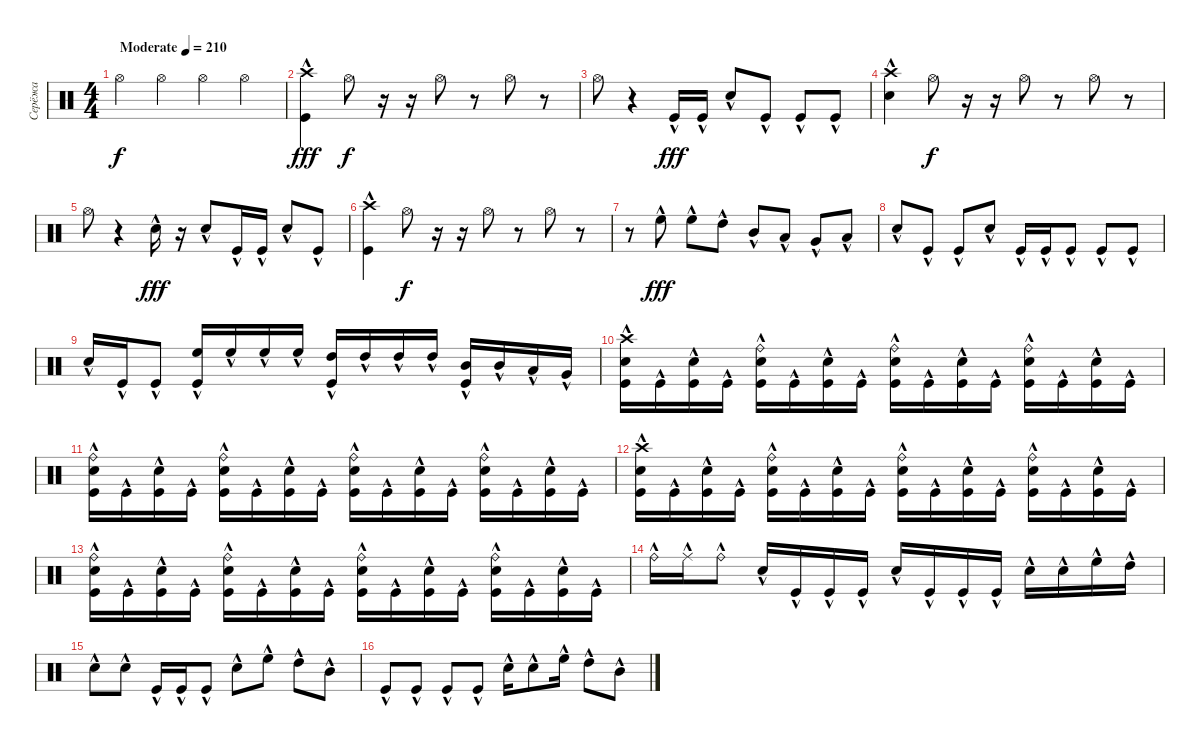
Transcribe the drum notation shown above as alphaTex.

\track ("Серёжа" "Серёжа") {instrument percussion}
\staff {score}
\articulation defaults
\ts (4 4)
\tempo (210 "Moderate")
\clef neutral
\ks c "Hi-Hat (open)".4{dy f} "Hi-Hat (open)".4 "Hi-Hat (open)".4 "Hi-Hat (open)".4
|
("Crash high (hit)"{hac} "Kick (hit)"{hac}).4{dy fff} "Hi-Hat (open)".8{dy f} r.16 r.16 "Hi-Hat (open)".8 r.8 "Hi-Hat (open)".8 r.8 |
"Hi-Hat (open)".8 r.4 "Kick (hit)"{hac}.16{dy fff} "Kick (hit)"{hac}.16 "Snare (hit) 2"{hac}.8 "Kick (hit)"{hac}.8 "Kick (hit)"{hac}.8 "Kick (hit)"{hac}.8 |
("Crash high (hit)"{hac} "Snare (hit) 2"{hac}).4 "Hi-Hat (open)".8{dy f} r.16 r.16 "Hi-Hat (open)".8 r.8 "Hi-Hat (open)".8 r.8 |
"Hi-Hat (open)".8 r.4 "Snare (hit) 2"{hac}.16{dy fff} r.16 "Snare (hit) 2"{hac}.8 "Kick (hit)"{hac}.16 "Kick (hit)"{hac}.16 "Snare (hit) 2"{hac}.8 "Kick (hit)"{hac}.8 |
("Crash high (hit)"{hac} "Kick (hit)"{hac}).4 "Hi-Hat (open)".8{dy f} r.16 r.16 "Hi-Hat (open)".8 r.8 "Hi-Hat (open)".8 r.8 |
r.8 "High Floor Tom (hit)"{hac}.8{dy fff} "High Floor Tom (hit)"{hac}.8 "High Tom (hit)"{hac}.8 "Mid Tom (hit)"{hac}.8 "Low Tom (hit)"{hac}.8 "Very Low Tom (hit)"{hac}.8 "Low Floor Tom (hit)"{hac}.8 |
"Snare (hit) 2"{hac}.8 "Kick (hit)"{hac}.8 "Kick (hit)"{hac}.8 "Snare (hit) 2"{hac}.8 "Kick (hit)"{hac}.16 "Kick (hit)"{hac}.16 "Kick (hit)"{hac}.8 "Kick (hit)"{hac}.8 "Kick (hit)"{hac}.8 |
"Snare (hit) 2"{hac}.16 "Kick (hit)"{hac}.16 "Kick (hit)"{hac}.8 ("High Floor Tom (hit)"{hac} "Kick (hit)"{hac}).16 "High Floor Tom (hit)"{hac}.16 "High Floor Tom (hit)"{hac}.16 "High Floor Tom (hit)"{hac}.16 ("High Tom (hit)"{hac} "Kick (hit)"{hac}).16 "High Tom (hit)"{hac}.16 "High Tom (hit)"{hac}.16 "High Tom (hit)"{hac}.16 ("Mid Tom (hit)"{hac} "Kick (hit)"{hac}).16 "Mid Tom (hit)"{hac}.16 "Low Tom (hit)"{hac}.16 "Very Low Tom (hit)"{hac}.16 |
("Crash high (hit)"{hac} "Snare (hit) 2"{hac} "Kick (hit)"{hac}).16 "Kick (hit)"{hac}.16 ("Snare (hit) 2"{hac} "Kick (hit)"{hac}).16 "Kick (hit)"{hac}.16 ("Ride (bell)" "Snare (hit) 2"{hac} "Kick (hit)"{hac}).16 "Kick (hit)"{hac}.16 ("Snare (hit) 2"{hac} "Kick (hit)"{hac}).16 "Kick (hit)"{hac}.16 ("Ride (bell)" "Snare (hit) 2"{hac} "Kick (hit)"{hac}).16 "Kick (hit)"{hac}.16 ("Snare (hit) 2"{hac} "Kick (hit)"{hac}).16 "Kick (hit)"{hac}.16 ("Ride (bell)" "Snare (hit) 2"{hac} "Kick (hit)"{hac}).16 "Kick (hit)"{hac}.16 ("Snare (hit) 2"{hac} "Kick (hit)"{hac}).16 "Kick (hit)"{hac}.16 |
("Ride (bell)" "Snare (hit) 2"{hac} "Kick (hit)"{hac}).16 "Kick (hit)"{hac}.16 ("Snare (hit) 2"{hac} "Kick (hit)"{hac}).16 "Kick (hit)"{hac}.16 ("Ride (bell)" "Snare (hit) 2"{hac} "Kick (hit)"{hac}).16 "Kick (hit)"{hac}.16 ("Snare (hit) 2"{hac} "Kick (hit)"{hac}).16 "Kick (hit)"{hac}.16 ("Ride (bell)" "Snare (hit) 2"{hac} "Kick (hit)"{hac}).16 "Kick (hit)"{hac}.16 ("Snare (hit) 2"{hac} "Kick (hit)"{hac}).16 "Kick (hit)"{hac}.16 ("Ride (bell)" "Snare (hit) 2"{hac} "Kick (hit)"{hac}).16 "Kick (hit)"{hac}.16 ("Snare (hit) 2"{hac} "Kick (hit)"{hac}).16 "Kick (hit)"{hac}.16 |
("Crash high (hit)"{hac} "Snare (hit) 2"{hac} "Kick (hit)"{hac}).16 "Kick (hit)"{hac}.16 ("Snare (hit) 2"{hac} "Kick (hit)"{hac}).16 "Kick (hit)"{hac}.16 ("Ride (bell)" "Snare (hit) 2"{hac} "Kick (hit)"{hac}).16 "Kick (hit)"{hac}.16 ("Snare (hit) 2"{hac} "Kick (hit)"{hac}).16 "Kick (hit)"{hac}.16 ("Ride (bell)" "Snare (hit) 2"{hac} "Kick (hit)"{hac}).16 "Kick (hit)"{hac}.16 ("Snare (hit) 2"{hac} "Kick (hit)"{hac}).16 "Kick (hit)"{hac}.16 ("Ride (bell)" "Snare (hit) 2"{hac} "Kick (hit)"{hac}).16 "Kick (hit)"{hac}.16 ("Snare (hit) 2"{hac} "Kick (hit)"{hac}).16 "Kick (hit)"{hac}.16 |
("Ride (bell)" "Snare (hit) 2"{hac} "Kick (hit)"{hac}).16 "Kick (hit)"{hac}.16 ("Snare (hit) 2"{hac} "Kick (hit)"{hac}).16 "Kick (hit)"{hac}.16 ("Ride (bell)" "Snare (hit) 2"{hac} "Kick (hit)"{hac}).16 "Kick (hit)"{hac}.16 ("Snare (hit) 2"{hac} "Kick (hit)"{hac}).16 "Kick (hit)"{hac}.16 ("Ride (bell)" "Snare (hit) 2"{hac} "Kick (hit)"{hac}).16 "Kick (hit)"{hac}.16 ("Snare (hit) 2"{hac} "Kick (hit)"{hac}).16 "Kick (hit)"{hac}.16 ("Ride (bell)" "Snare (hit) 2"{hac} "Kick (hit)"{hac}).16 "Kick (hit)"{hac}.16 ("Snare (hit) 2"{hac} "Kick (hit)"{hac}).16 "Kick (hit)"{hac}.16 |
"Ride (bell)"{hac}.16 "Ride (middle)"{hac}.16 "Ride (bell)"{hac}.8 "Snare (hit) 2"{hac}.16 "Kick (hit)"{hac}.16 "Kick (hit)"{hac}.16 "Kick (hit)"{hac}.16 "Snare (hit) 2"{hac}.16 "Kick (hit)"{hac}.16 "Kick (hit)"{hac}.16 "Kick (hit)"{hac}.16 "Snare (hit) 2"{hac}.16 "Snare (hit) 2"{hac}.16 "High Floor Tom (hit)"{hac}.16 "High Tom (hit)"{hac}.16 |
"Snare (hit) 2"{hac}.8 "Snare (hit) 2"{hac}.8 "Kick (hit)"{hac}.16 "Kick (hit)"{hac}.16 "Kick (hit)"{hac}.8 "Snare (hit) 2"{hac}.8 "High Floor Tom (hit)"{hac}.8 "High Tom (hit)"{hac}.8 "Mid Tom (hit)"{hac}.8 |
"Kick (hit)"{hac}.8 "Kick (hit)"{hac}.8 "Kick (hit)"{hac}.8 "Kick (hit)"{hac}.8 "Snare (hit) 2"{hac}.16 "Snare (hit) 2"{hac}.8 "High Floor Tom (hit)"{hac}.16 "High Tom (hit)"{hac}.8 "Mid Tom (hit)"{hac}.8
